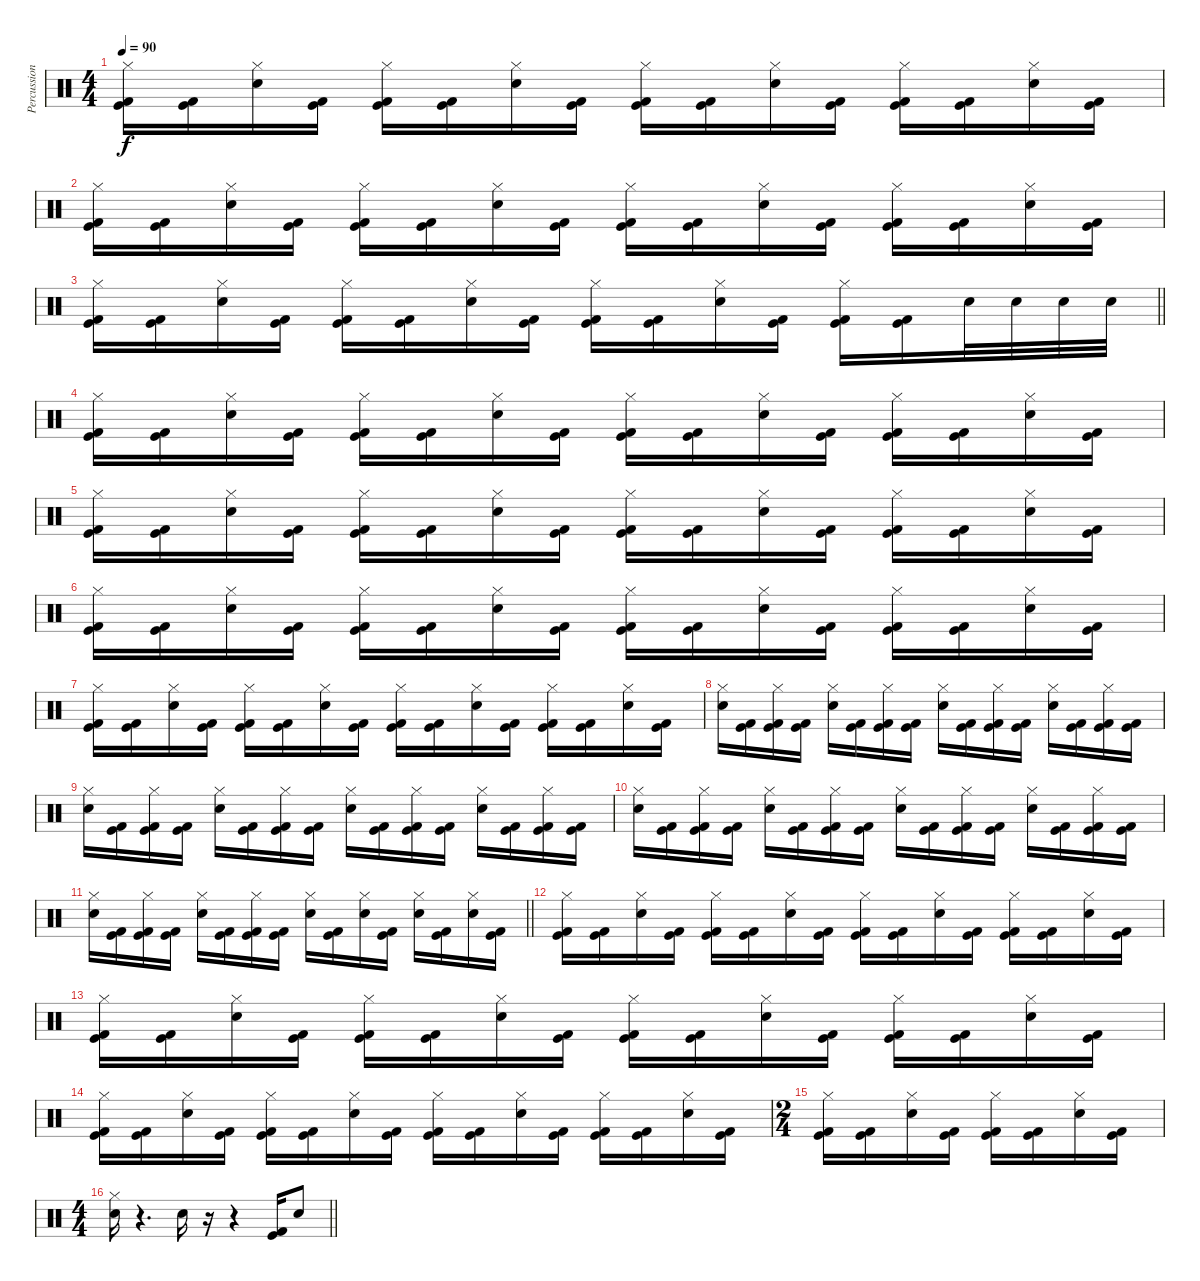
\track ("Percussion" "Percussion") {instrument percussion}
\staff {score}
\articulation defaults
\ts (4 4)
\tempo 90
\clef neutral
\ks c
("Hi-Hat (closed)" "Kick (hit)" "Kick (hit) 2").16{dy f} ("Kick (hit)" "Kick (hit) 2").16 ("Hi-Hat (closed)" "Electric Snare (hit)").16 ("Kick (hit)" "Kick (hit) 2").16 ("Hi-Hat (closed)" "Kick (hit)" "Kick (hit) 2").16 ("Kick (hit)" "Kick (hit) 2").16 ("Hi-Hat (closed)" "Electric Snare (hit)").16 ("Kick (hit)" "Kick (hit) 2").16 ("Hi-Hat (closed)" "Kick (hit)" "Kick (hit) 2").16 ("Kick (hit)" "Kick (hit) 2").16 ("Hi-Hat (closed)" "Electric Snare (hit)").16 ("Kick (hit)" "Kick (hit) 2").16 ("Hi-Hat (closed)" "Kick (hit)" "Kick (hit) 2").16 ("Kick (hit)" "Kick (hit) 2").16 ("Hi-Hat (closed)" "Electric Snare (hit)").16 ("Kick (hit)" "Kick (hit) 2").16 |
("Hi-Hat (closed)" "Kick (hit)" "Kick (hit) 2").16 ("Kick (hit)" "Kick (hit) 2").16 ("Hi-Hat (closed)" "Electric Snare (hit)").16 ("Kick (hit)" "Kick (hit) 2").16 ("Hi-Hat (closed)" "Kick (hit)" "Kick (hit) 2").16 ("Kick (hit)" "Kick (hit) 2").16 ("Hi-Hat (closed)" "Electric Snare (hit)").16 ("Kick (hit)" "Kick (hit) 2").16 ("Hi-Hat (closed)" "Kick (hit)" "Kick (hit) 2").16 ("Kick (hit)" "Kick (hit) 2").16 ("Hi-Hat (closed)" "Electric Snare (hit)").16 ("Kick (hit)" "Kick (hit) 2").16 ("Hi-Hat (closed)" "Kick (hit)" "Kick (hit) 2").16 ("Kick (hit)" "Kick (hit) 2").16 ("Hi-Hat (closed)" "Electric Snare (hit)").16 ("Kick (hit)" "Kick (hit) 2").16 |
\barLineRight lightlight
("Hi-Hat (closed)" "Kick (hit)" "Kick (hit) 2").16 ("Kick (hit)" "Kick (hit) 2").16 ("Hi-Hat (closed)" "Electric Snare (hit)").16 ("Kick (hit)" "Kick (hit) 2").16 ("Hi-Hat (closed)" "Kick (hit)" "Kick (hit) 2").16 ("Kick (hit)" "Kick (hit) 2").16 ("Hi-Hat (closed)" "Electric Snare (hit)").16 ("Kick (hit)" "Kick (hit) 2").16 ("Hi-Hat (closed)" "Kick (hit)" "Kick (hit) 2").16 ("Kick (hit)" "Kick (hit) 2").16 ("Hi-Hat (closed)" "Electric Snare (hit)").16 ("Kick (hit)" "Kick (hit) 2").16 ("Hi-Hat (closed)" "Kick (hit)" "Kick (hit) 2").16 ("Kick (hit)" "Kick (hit) 2").16 "Electric Snare (hit)".32 "Electric Snare (hit)".32 "Electric Snare (hit)".32 "Electric Snare (hit)".32 |
\section ("" "")
("Hi-Hat (closed)" "Kick (hit)" "Kick (hit) 2").16 ("Kick (hit)" "Kick (hit) 2").16 ("Hi-Hat (closed)" "Electric Snare (hit)").16 ("Kick (hit)" "Kick (hit) 2").16 ("Hi-Hat (closed)" "Kick (hit)" "Kick (hit) 2").16 ("Kick (hit)" "Kick (hit) 2").16 ("Hi-Hat (closed)" "Electric Snare (hit)").16 ("Kick (hit)" "Kick (hit) 2").16 ("Hi-Hat (closed)" "Kick (hit)" "Kick (hit) 2").16 ("Kick (hit)" "Kick (hit) 2").16 ("Hi-Hat (closed)" "Electric Snare (hit)").16 ("Kick (hit)" "Kick (hit) 2").16 ("Hi-Hat (closed)" "Kick (hit)" "Kick (hit) 2").16 ("Kick (hit)" "Kick (hit) 2").16 ("Hi-Hat (closed)" "Electric Snare (hit)").16 ("Kick (hit)" "Kick (hit) 2").16 |
("Hi-Hat (closed)" "Kick (hit)" "Kick (hit) 2").16 ("Kick (hit)" "Kick (hit) 2").16 ("Hi-Hat (closed)" "Electric Snare (hit)").16 ("Kick (hit)" "Kick (hit) 2").16 ("Hi-Hat (closed)" "Kick (hit)" "Kick (hit) 2").16 ("Kick (hit)" "Kick (hit) 2").16 ("Hi-Hat (closed)" "Electric Snare (hit)").16 ("Kick (hit)" "Kick (hit) 2").16 ("Hi-Hat (closed)" "Kick (hit)" "Kick (hit) 2").16 ("Kick (hit)" "Kick (hit) 2").16 ("Hi-Hat (closed)" "Electric Snare (hit)").16 ("Kick (hit)" "Kick (hit) 2").16 ("Hi-Hat (closed)" "Kick (hit)" "Kick (hit) 2").16 ("Kick (hit)" "Kick (hit) 2").16 ("Hi-Hat (closed)" "Electric Snare (hit)").16 ("Kick (hit)" "Kick (hit) 2").16 |
("Hi-Hat (closed)" "Kick (hit)" "Kick (hit) 2").16 ("Kick (hit)" "Kick (hit) 2").16 ("Hi-Hat (closed)" "Electric Snare (hit)").16 ("Kick (hit)" "Kick (hit) 2").16 ("Hi-Hat (closed)" "Kick (hit)" "Kick (hit) 2").16 ("Kick (hit)" "Kick (hit) 2").16 ("Hi-Hat (closed)" "Electric Snare (hit)").16 ("Kick (hit)" "Kick (hit) 2").16 ("Hi-Hat (closed)" "Kick (hit)" "Kick (hit) 2").16 ("Kick (hit)" "Kick (hit) 2").16 ("Hi-Hat (closed)" "Electric Snare (hit)").16 ("Kick (hit)" "Kick (hit) 2").16 ("Hi-Hat (closed)" "Kick (hit)" "Kick (hit) 2").16 ("Kick (hit)" "Kick (hit) 2").16 ("Hi-Hat (closed)" "Electric Snare (hit)").16 ("Kick (hit)" "Kick (hit) 2").16 |
("Hi-Hat (closed)" "Kick (hit)" "Kick (hit) 2").16 ("Kick (hit)" "Kick (hit) 2").16 ("Hi-Hat (closed)" "Electric Snare (hit)").16 ("Kick (hit)" "Kick (hit) 2").16 ("Hi-Hat (closed)" "Kick (hit)" "Kick (hit) 2").16 ("Kick (hit)" "Kick (hit) 2").16 ("Hi-Hat (closed)" "Electric Snare (hit)").16 ("Kick (hit)" "Kick (hit) 2").16 ("Hi-Hat (closed)" "Kick (hit)" "Kick (hit) 2").16 ("Kick (hit)" "Kick (hit) 2").16 ("Hi-Hat (closed)" "Electric Snare (hit)").16 ("Kick (hit)" "Kick (hit) 2").16 ("Hi-Hat (closed)" "Kick (hit)" "Kick (hit) 2").16 ("Kick (hit)" "Kick (hit) 2").16 ("Hi-Hat (closed)" "Electric Snare (hit)").16 ("Kick (hit)" "Kick (hit) 2").16 |
("Hi-Hat (closed)" "Electric Snare (hit)").16 ("Kick (hit)" "Kick (hit) 2").16 ("Hi-Hat (closed)" "Kick (hit)" "Kick (hit) 2").16 ("Kick (hit)" "Kick (hit) 2").16 ("Hi-Hat (closed)" "Electric Snare (hit)").16 ("Kick (hit)" "Kick (hit) 2").16 ("Hi-Hat (closed)" "Kick (hit)" "Kick (hit) 2").16 ("Kick (hit)" "Kick (hit) 2").16 ("Hi-Hat (closed)" "Electric Snare (hit)").16 ("Kick (hit)" "Kick (hit) 2").16 ("Hi-Hat (closed)" "Kick (hit)" "Kick (hit) 2").16 ("Kick (hit)" "Kick (hit) 2").16 ("Hi-Hat (closed)" "Electric Snare (hit)").16 ("Kick (hit)" "Kick (hit) 2").16 ("Hi-Hat (closed)" "Kick (hit)" "Kick (hit) 2").16 ("Kick (hit)" "Kick (hit) 2").16 |
("Hi-Hat (closed)" "Electric Snare (hit)").16 ("Kick (hit)" "Kick (hit) 2").16 ("Hi-Hat (closed)" "Kick (hit)" "Kick (hit) 2").16 ("Kick (hit)" "Kick (hit) 2").16 ("Hi-Hat (closed)" "Electric Snare (hit)").16 ("Kick (hit)" "Kick (hit) 2").16 ("Hi-Hat (closed)" "Kick (hit)" "Kick (hit) 2").16 ("Kick (hit)" "Kick (hit) 2").16 ("Hi-Hat (closed)" "Electric Snare (hit)").16 ("Kick (hit)" "Kick (hit) 2").16 ("Hi-Hat (closed)" "Kick (hit)" "Kick (hit) 2").16 ("Kick (hit)" "Kick (hit) 2").16 ("Hi-Hat (closed)" "Electric Snare (hit)").16 ("Kick (hit)" "Kick (hit) 2").16 ("Hi-Hat (closed)" "Kick (hit)" "Kick (hit) 2").16 ("Kick (hit)" "Kick (hit) 2").16 |
("Hi-Hat (closed)" "Electric Snare (hit)").16 ("Kick (hit)" "Kick (hit) 2").16 ("Hi-Hat (closed)" "Kick (hit)" "Kick (hit) 2").16 ("Kick (hit)" "Kick (hit) 2").16 ("Hi-Hat (closed)" "Electric Snare (hit)").16 ("Kick (hit)" "Kick (hit) 2").16 ("Hi-Hat (closed)" "Kick (hit)" "Kick (hit) 2").16 ("Kick (hit)" "Kick (hit) 2").16 ("Hi-Hat (closed)" "Electric Snare (hit)").16 ("Kick (hit)" "Kick (hit) 2").16 ("Hi-Hat (closed)" "Kick (hit)" "Kick (hit) 2").16 ("Kick (hit)" "Kick (hit) 2").16 ("Hi-Hat (closed)" "Electric Snare (hit)").16 ("Kick (hit)" "Kick (hit) 2").16 ("Hi-Hat (closed)" "Kick (hit)" "Kick (hit) 2").16 ("Kick (hit)" "Kick (hit) 2").16 |
\barLineRight lightlight
("Hi-Hat (closed)" "Electric Snare (hit)").16 ("Kick (hit)" "Kick (hit) 2").16 ("Hi-Hat (closed)" "Kick (hit)" "Kick (hit) 2").16 ("Kick (hit)" "Kick (hit) 2").16 ("Hi-Hat (closed)" "Electric Snare (hit)").16 ("Kick (hit)" "Kick (hit) 2").16 ("Hi-Hat (closed)" "Kick (hit)" "Kick (hit) 2").16 ("Kick (hit)" "Kick (hit) 2").16 ("Hi-Hat (closed)" "Electric Snare (hit)").16 ("Kick (hit)" "Kick (hit) 2").16 ("Hi-Hat (closed)" "Electric Snare (hit)").16 ("Kick (hit)" "Kick (hit) 2").16 ("Hi-Hat (closed)" "Electric Snare (hit)").16 ("Kick (hit)" "Kick (hit) 2").16 ("Hi-Hat (closed)" "Electric Snare (hit)").16 ("Kick (hit)" "Kick (hit) 2").16 |
\section ("" "")
("Hi-Hat (closed)" "Kick (hit)" "Kick (hit) 2").16 ("Kick (hit)" "Kick (hit) 2").16 ("Hi-Hat (closed)" "Electric Snare (hit)").16 ("Kick (hit)" "Kick (hit) 2").16 ("Hi-Hat (closed)" "Kick (hit)" "Kick (hit) 2").16 ("Kick (hit)" "Kick (hit) 2").16 ("Hi-Hat (closed)" "Electric Snare (hit)").16 ("Kick (hit)" "Kick (hit) 2").16 ("Hi-Hat (closed)" "Kick (hit)" "Kick (hit) 2").16 ("Kick (hit)" "Kick (hit) 2").16 ("Hi-Hat (closed)" "Electric Snare (hit)").16 ("Kick (hit)" "Kick (hit) 2").16 ("Hi-Hat (closed)" "Kick (hit)" "Kick (hit) 2").16 ("Kick (hit)" "Kick (hit) 2").16 ("Hi-Hat (closed)" "Electric Snare (hit)").16 ("Kick (hit)" "Kick (hit) 2").16 |
("Hi-Hat (closed)" "Kick (hit)" "Kick (hit) 2").16 ("Kick (hit)" "Kick (hit) 2").16 ("Hi-Hat (closed)" "Electric Snare (hit)").16 ("Kick (hit)" "Kick (hit) 2").16 ("Hi-Hat (closed)" "Kick (hit)" "Kick (hit) 2").16 ("Kick (hit)" "Kick (hit) 2").16 ("Hi-Hat (closed)" "Electric Snare (hit)").16 ("Kick (hit)" "Kick (hit) 2").16 ("Hi-Hat (closed)" "Kick (hit)" "Kick (hit) 2").16 ("Kick (hit)" "Kick (hit) 2").16 ("Hi-Hat (closed)" "Electric Snare (hit)").16 ("Kick (hit)" "Kick (hit) 2").16 ("Hi-Hat (closed)" "Kick (hit)" "Kick (hit) 2").16 ("Kick (hit)" "Kick (hit) 2").16 ("Hi-Hat (closed)" "Electric Snare (hit)").16 ("Kick (hit)" "Kick (hit) 2").16 |
("Hi-Hat (closed)" "Kick (hit)" "Kick (hit) 2").16 ("Kick (hit)" "Kick (hit) 2").16 ("Hi-Hat (closed)" "Electric Snare (hit)").16 ("Kick (hit)" "Kick (hit) 2").16 ("Hi-Hat (closed)" "Kick (hit)" "Kick (hit) 2").16 ("Kick (hit)" "Kick (hit) 2").16 ("Hi-Hat (closed)" "Electric Snare (hit)").16 ("Kick (hit)" "Kick (hit) 2").16 ("Hi-Hat (closed)" "Kick (hit)" "Kick (hit) 2").16 ("Kick (hit)" "Kick (hit) 2").16 ("Hi-Hat (closed)" "Electric Snare (hit)").16 ("Kick (hit)" "Kick (hit) 2").16 ("Hi-Hat (closed)" "Kick (hit)" "Kick (hit) 2").16 ("Kick (hit)" "Kick (hit) 2").16 ("Hi-Hat (closed)" "Electric Snare (hit)").16 ("Kick (hit)" "Kick (hit) 2").16 |
\ts (2 4)
("Hi-Hat (closed)" "Kick (hit)" "Kick (hit) 2").16 ("Kick (hit)" "Kick (hit) 2").16 ("Hi-Hat (closed)" "Electric Snare (hit)").16 ("Kick (hit)" "Kick (hit) 2").16 ("Hi-Hat (closed)" "Kick (hit)" "Kick (hit) 2").16 ("Kick (hit)" "Kick (hit) 2").16 ("Hi-Hat (closed)" "Electric Snare (hit)").16 ("Kick (hit)" "Kick (hit) 2").16 |
\ts (4 4)
\barLineRight lightlight
("Hi-Hat (closed)" "Electric Snare (hit)").16 r.4{d} "Electric Snare (hit)".16 r.16 r.4 ("Kick (hit)" "Kick (hit) 2").16 "Electric Snare (hit)".8
